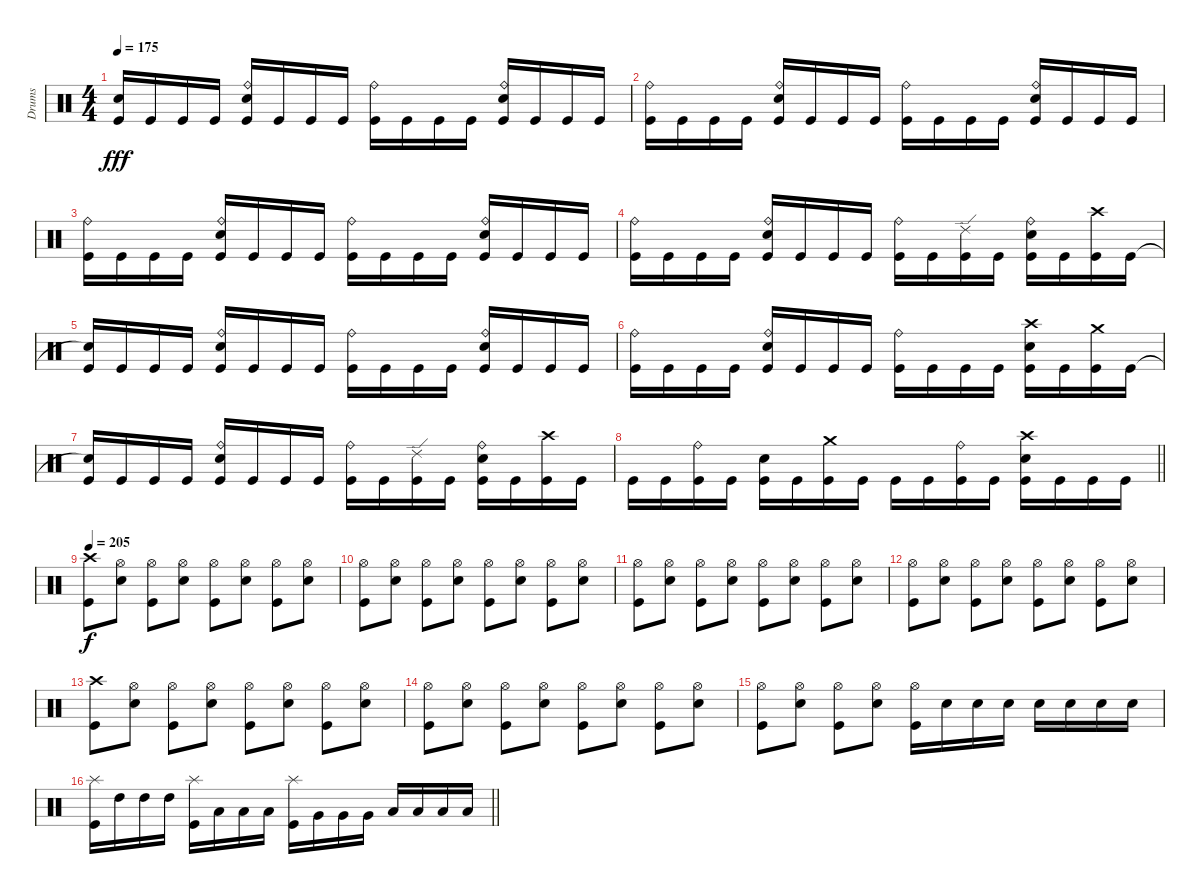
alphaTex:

\track ("Drums" "Drums") {instrument percussion}
\staff {score}
\articulation defaults
\ts (4 4)
\tempo 175
\clef neutral
\ks c
("Snare (hit)"{t} "Kick (hit)").16{dy fff} "Kick (hit)".16 "Kick (hit)".16 "Kick (hit)".16 ("Ride (bell)" "Electric Snare (hit)" "Kick (hit)").16 "Kick (hit)".16 "Kick (hit)".16 "Kick (hit)".16 ("Ride (bell)" "Kick (hit)").16 "Kick (hit)".16 "Kick (hit)".16 "Kick (hit)".16 ("Ride (bell)" "Electric Snare (hit)" "Kick (hit)").16 "Kick (hit)".16 "Kick (hit)".16 "Kick (hit)".16 |
("Ride (bell)" "Kick (hit)").16 "Kick (hit)".16 "Kick (hit)".16 "Kick (hit)".16 ("Ride (bell)" "Electric Snare (hit)" "Kick (hit)").16 "Kick (hit)".16 "Kick (hit)".16 "Kick (hit)".16 ("Ride (bell)" "Kick (hit)").16 "Kick (hit)".16 "Kick (hit)".16 "Kick (hit)".16 ("Ride (bell)" "Electric Snare (hit)" "Kick (hit)").16 "Kick (hit)".16 "Kick (hit)".16 "Kick (hit)".16 |
("Ride (bell)" "Kick (hit)").16 "Kick (hit)".16 "Kick (hit)".16 "Kick (hit)".16 ("Ride (bell)" "Electric Snare (hit)" "Kick (hit)").16 "Kick (hit)".16 "Kick (hit)".16 "Kick (hit)".16 ("Ride (bell)" "Kick (hit)").16 "Kick (hit)".16 "Kick (hit)".16 "Kick (hit)".16 ("Ride (bell)" "Electric Snare (hit)" "Kick (hit)").16 "Kick (hit)".16 "Kick (hit)".16 "Kick (hit)".16 |
("Ride (bell)" "Kick (hit)").16 "Kick (hit)".16 "Kick (hit)".16 "Kick (hit)".16 ("Ride (bell)" "Electric Snare (hit)" "Kick (hit)").16 "Kick (hit)".16 "Kick (hit)".16 "Kick (hit)".16 ("Ride (bell)" "Kick (hit)").16 "Kick (hit)".16 ("Ride (edge) 2" "Kick (hit)").16 "Kick (hit)".16 ("Ride (bell)" "Electric Snare (hit)" "Kick (hit)").16 "Kick (hit)".16 ("Crash high (hit)" "Kick (hit)").16 "Kick (hit)".16 |
("Snare (hit)"{t} "Kick (hit)").16 "Kick (hit)".16 "Kick (hit)".16 "Kick (hit)".16 ("Ride (bell)" "Electric Snare (hit)" "Kick (hit)").16 "Kick (hit)".16 "Kick (hit)".16 "Kick (hit)".16 ("Ride (bell)" "Kick (hit)").16 "Kick (hit)".16 "Kick (hit)".16 "Kick (hit)".16 ("Ride (bell)" "Electric Snare (hit)" "Kick (hit)").16 "Kick (hit)".16 "Kick (hit)".16 "Kick (hit)".16 |
("Ride (bell)" "Kick (hit)").16 "Kick (hit)".16 "Kick (hit)".16 "Kick (hit)".16 ("Ride (bell)" "Electric Snare (hit)" "Kick (hit)").16 "Kick (hit)".16 "Kick (hit)".16 "Kick (hit)".16 ("Ride (bell)" "Kick (hit)").16 "Kick (hit)".16 "Kick (hit)".16 "Kick (hit)".16 ("Crash high (hit)" "Electric Snare (hit)" "Kick (hit)").16 "Kick (hit)".16 ("Crash medium (hit)" "Kick (hit)").16 "Kick (hit)".16 |
("Snare (hit)"{t} "Kick (hit)").16 "Kick (hit)".16 "Kick (hit)".16 "Kick (hit)".16 ("Ride (bell)" "Electric Snare (hit)" "Kick (hit)").16 "Kick (hit)".16 "Kick (hit)".16 "Kick (hit)".16 ("Ride (bell)" "Kick (hit)").16 "Kick (hit)".16 ("Ride (edge) 2" "Kick (hit)").16 "Kick (hit)".16 ("Ride (bell)" "Electric Snare (hit)" "Kick (hit)").16 "Kick (hit)".16 ("Crash high (hit)" "Kick (hit)").16 "Kick (hit)".16 |
\barLineRight lightlight "Kick (hit)".16 "Kick (hit)".16
("Ride (bell)" "Kick (hit)").16 "Kick (hit)".16 ("Electric Snare (hit)" "Kick (hit)").16 "Kick (hit)".16 ("Crash medium (hit)" "Kick (hit)").16 "Kick (hit)".16 "Kick (hit)".16 "Kick (hit)".16 ("Ride (bell)" "Kick (hit)").16 "Kick (hit)".16 ("Crash high (hit)" "Electric Snare (hit)" "Kick (hit)").16 "Kick (hit)".16 "Kick (hit)".16 "Kick (hit)".16 |
\tempo 205
("Crash high (hit)" "Kick (hit)").8{dy f} ("Hi-Hat (open)" "Electric Snare (hit)").8 ("Hi-Hat (open)" "Kick (hit)").8 ("Hi-Hat (open)" "Electric Snare (hit)").8 ("Hi-Hat (open)" "Kick (hit)").8 ("Hi-Hat (open)" "Electric Snare (hit)").8 ("Hi-Hat (open)" "Kick (hit)").8 ("Hi-Hat (open)" "Electric Snare (hit)").8 |
("Hi-Hat (open)" "Kick (hit)").8 ("Hi-Hat (open)" "Electric Snare (hit)").8 ("Hi-Hat (open)" "Kick (hit)").8 ("Hi-Hat (open)" "Electric Snare (hit)").8 ("Hi-Hat (open)" "Kick (hit)").8 ("Hi-Hat (open)" "Electric Snare (hit)").8 ("Hi-Hat (open)" "Kick (hit)").8 ("Hi-Hat (open)" "Electric Snare (hit)").8 |
("Hi-Hat (open)" "Kick (hit)").8 ("Hi-Hat (open)" "Electric Snare (hit)").8 ("Hi-Hat (open)" "Kick (hit)").8 ("Hi-Hat (open)" "Electric Snare (hit)").8 ("Hi-Hat (open)" "Kick (hit)").8 ("Hi-Hat (open)" "Electric Snare (hit)").8 ("Hi-Hat (open)" "Kick (hit)").8 ("Hi-Hat (open)" "Electric Snare (hit)").8 |
("Hi-Hat (open)" "Kick (hit)").8 ("Hi-Hat (open)" "Electric Snare (hit)").8 ("Hi-Hat (open)" "Kick (hit)").8 ("Hi-Hat (open)" "Electric Snare (hit)").8 ("Hi-Hat (open)" "Kick (hit)").8 ("Hi-Hat (open)" "Electric Snare (hit)").8 ("Hi-Hat (open)" "Kick (hit)").8 ("Hi-Hat (open)" "Electric Snare (hit)").8 |
("Crash high (hit)" "Kick (hit)").8 ("Hi-Hat (open)" "Electric Snare (hit)").8 ("Hi-Hat (open)" "Kick (hit)").8 ("Hi-Hat (open)" "Electric Snare (hit)").8 ("Hi-Hat (open)" "Kick (hit)").8 ("Hi-Hat (open)" "Electric Snare (hit)").8 ("Hi-Hat (open)" "Kick (hit)").8 ("Hi-Hat (open)" "Electric Snare (hit)").8 |
("Hi-Hat (open)" "Kick (hit)").8 ("Hi-Hat (open)" "Electric Snare (hit)").8 ("Hi-Hat (open)" "Kick (hit)").8 ("Hi-Hat (open)" "Electric Snare (hit)").8 ("Hi-Hat (open)" "Kick (hit)").8 ("Hi-Hat (open)" "Electric Snare (hit)").8 ("Hi-Hat (open)" "Kick (hit)").8 ("Hi-Hat (open)" "Electric Snare (hit)").8 |
("Hi-Hat (open)" "Kick (hit)").8 ("Hi-Hat (open)" "Electric Snare (hit)").8 ("Hi-Hat (open)" "Kick (hit)").8 ("Hi-Hat (open)" "Electric Snare (hit)").8 ("Hi-Hat (open)" "Kick (hit)").16 "Electric Snare (hit)".16 "Electric Snare (hit)".16 "Electric Snare (hit)".16 "Electric Snare (hit)".16 "Electric Snare (hit)".16 "Electric Snare (hit)".16 "Electric Snare (hit)".16 |
\barLineRight lightlight
("Splash (hit)" "Kick (hit)").16 "High Tom (hit)".16 "High Tom (hit)".16 "High Tom (hit)".16 ("Splash (hit)" "Kick (hit)").16 "Low Tom (hit)".16 "Low Tom (hit)".16 "Low Tom (hit)".16 ("Splash (hit)" "Kick (hit)").16 "Very Low Tom (hit)".16 "Very Low Tom (hit)".16 "Very Low Tom (hit)".16 "Low Floor Tom (hit)".16 "Low Floor Tom (hit)".16 "Low Floor Tom (hit)".16 "Low Floor Tom (hit)".16
